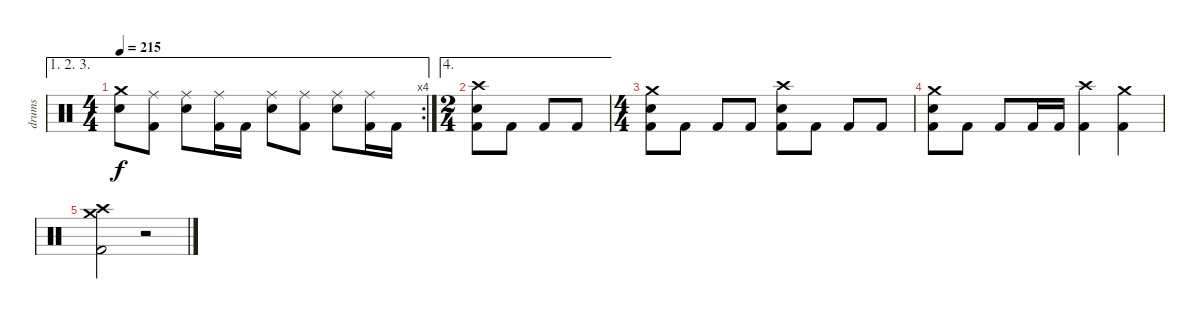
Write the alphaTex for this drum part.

\track ("drums" "drums") {instrument percussion}
\staff {score}
\articulation defaults
\ae (1 2 3)
\rc 4
\ts (4 4)
\tempo 215
\clef neutral
\ks c
("Crash medium (hit)" "Electric Snare (hit)").8{dy f} ("Ride (middle)" "Kick (hit) 2").8 ("Ride (middle)" "Electric Snare (hit)").8 ("Ride (middle)" "Kick (hit) 2").16 "Kick (hit) 2".16 ("Ride (middle)" "Electric Snare (hit)").8 ("Ride (middle)" "Kick (hit) 2").8 ("Ride (middle)" "Electric Snare (hit)").8 ("Ride (middle)" "Kick (hit) 2").16 "Kick (hit) 2".16 |
\ae 4
\ts (2 4)
("Crash high (hit)" "Electric Snare (hit)" "Kick (hit) 2").8 "Kick (hit) 2".8 "Kick (hit) 2".8 "Kick (hit) 2".8 |
\ts (4 4)
("Crash medium (hit)" "Electric Snare (hit)" "Kick (hit) 2").8 "Kick (hit) 2".8 "Kick (hit) 2".8 "Kick (hit) 2".8 ("Crash high (hit)" "Electric Snare (hit)" "Kick (hit) 2").8 "Kick (hit) 2".8 "Kick (hit) 2".8 "Kick (hit) 2".8 |
("Crash medium (hit)" "Electric Snare (hit)" "Kick (hit) 2").8 "Kick (hit) 2".8 "Kick (hit) 2".8 "Kick (hit) 2".16 "Kick (hit) 2".16 ("Crash high (hit)" "Kick (hit) 2").4 ("Crash medium (hit)" "Kick (hit) 2").4 |
("Crash high (hit)" "Crash medium (hit)" "Kick (hit) 2").2 r.2
